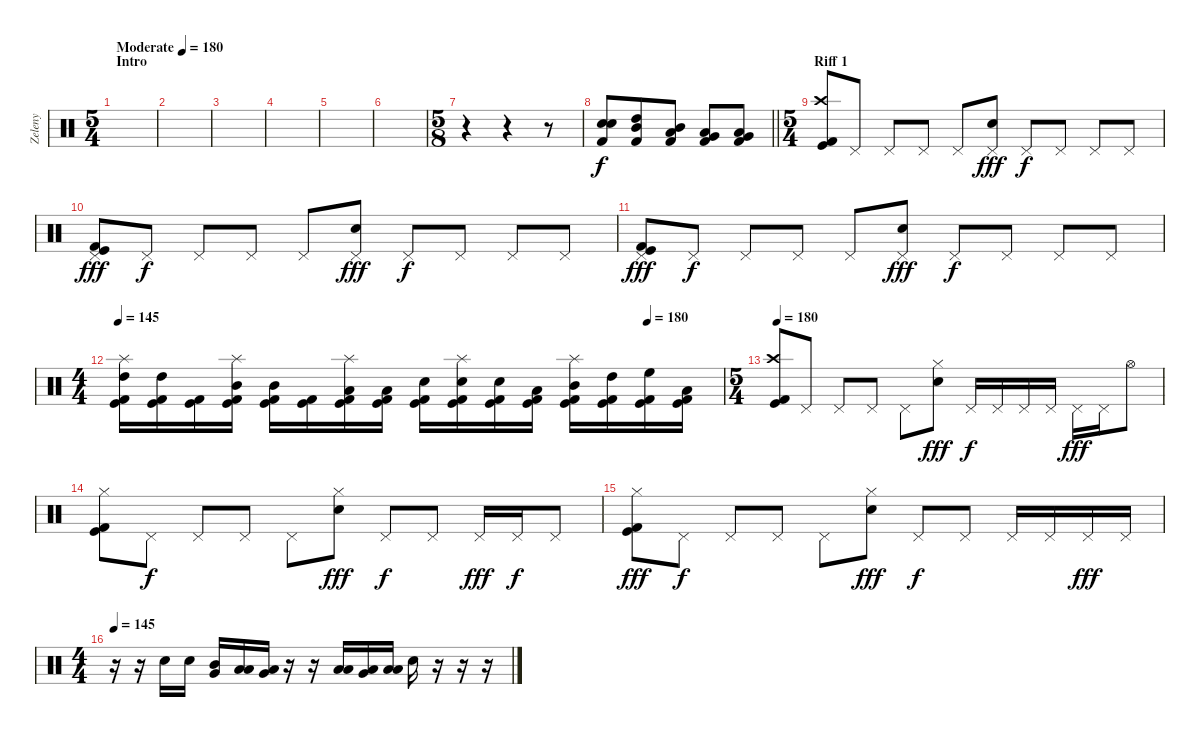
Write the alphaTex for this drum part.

\track ("Zeleny" "Zeleny") {instrument percussion}
\staff {score}
\articulation defaults
\ts (5 4)
\section ("" "Intro")
\tempo (180 "Moderate")
\clef neutral
\ks c
|
|
|
|
|
|
\ts (5 8)
r.4 r.4 r.8 |
\barLineRight lightlight
("Electric Snare (hit)" "Snare (hit) 2" "Kick (hit) 2").8 ("High Tom (hit)" "Mid Tom (hit)" "Kick (hit) 2").8 ("Mid Tom (hit)" "Low Tom (hit)" "Kick (hit) 2").8 ("Low Tom (hit)" "Very Low Tom (hit)" "Kick (hit) 2").8 ("Very Low Tom (hit)" "Low Floor Tom (hit)" "Kick (hit) 2").8 |
\ts (5 4)
\section ("" "Riff 1")
("Crash high (hit)" "Kick (hit)" "Kick (hit) 2").8 "Pedal Hi-Hat (hit)".8 "Pedal Hi-Hat (hit)".8 "Pedal Hi-Hat (hit)".8 "Pedal Hi-Hat (hit)".8 ("Pedal Hi-Hat (hit)" "Snare (hit) 2").8{dy fff} "Pedal Hi-Hat (hit)".8{dy f} "Pedal Hi-Hat (hit)".8 "Pedal Hi-Hat (hit)".8 "Pedal Hi-Hat (hit)".8 |
("Pedal Hi-Hat (hit)" "Kick (hit)" "Kick (hit) 2").8{dy fff} "Pedal Hi-Hat (hit)".8{dy f} "Pedal Hi-Hat (hit)".8 "Pedal Hi-Hat (hit)".8 "Pedal Hi-Hat (hit)".8 ("Pedal Hi-Hat (hit)" "Snare (hit) 2").8{dy fff} "Pedal Hi-Hat (hit)".8{dy f} "Pedal Hi-Hat (hit)".8 "Pedal Hi-Hat (hit)".8 "Pedal Hi-Hat (hit)".8 |
("Pedal Hi-Hat (hit)" "Kick (hit)" "Kick (hit) 2").8{dy fff} "Pedal Hi-Hat (hit)".8{dy f} "Pedal Hi-Hat (hit)".8 "Pedal Hi-Hat (hit)".8 "Pedal Hi-Hat (hit)".8 ("Pedal Hi-Hat (hit)" "Snare (hit) 2").8{dy fff} "Pedal Hi-Hat (hit)".8{dy f} "Pedal Hi-Hat (hit)".8 "Pedal Hi-Hat (hit)".8 "Pedal Hi-Hat (hit)".8 |
\ts (4 4)
\tempo 145
\tempo (180 0.875)
("Splash (hit)" "High Tom (hit)" "Kick (hit)" "Kick (hit) 2").16 ("High Tom (hit)" "Kick (hit)" "Kick (hit) 2").16 ("Kick (hit)" "Kick (hit) 2").16 ("Splash (hit)" "Mid Tom (hit)" "Kick (hit)" "Kick (hit) 2").16 ("Mid Tom (hit)" "Kick (hit)" "Kick (hit) 2").16 ("Kick (hit)" "Kick (hit) 2").16 ("Splash (hit)" "Low Tom (hit)" "Kick (hit)" "Kick (hit) 2").16 ("Low Tom (hit)" "Kick (hit)" "Kick (hit) 2").16 ("Electric Snare (hit)" "Kick (hit)" "Kick (hit) 2").16 ("Splash (hit)" "Electric Snare (hit)" "Kick (hit)" "Kick (hit) 2").16 ("Electric Snare (hit)" "Kick (hit)" "Kick (hit) 2").16 ("Low Tom (hit)" "Kick (hit)" "Kick (hit) 2").16 ("Splash (hit)" "Mid Tom (hit)" "Kick (hit)" "Kick (hit) 2").16 ("High Tom (hit)" "Kick (hit)" "Kick (hit) 2").16 ("High Floor Tom (hit)" "Kick (hit)" "Kick (hit) 2").16 ("Low Tom (hit)" "Kick (hit)" "Kick (hit) 2").16 |
\ts (5 4)
\tempo 180
("Crash high (hit)" "Kick (hit)" "Kick (hit) 2").8 "Pedal Hi-Hat (hit)".8 "Pedal Hi-Hat (hit)".8 "Pedal Hi-Hat (hit)".8 "Pedal Hi-Hat (hit)".8 ("Hi-Hat (closed)" "Electric Snare (hit)").8{dy fff} "Pedal Hi-Hat (hit)".16{dy f} "Pedal Hi-Hat (hit)".16 "Pedal Hi-Hat (hit)".16 "Pedal Hi-Hat (hit)".16 "Pedal Hi-Hat (hit)".16{dy fff} "Pedal Hi-Hat (hit)".16 "Hi-Hat (open)".8 |
("Hi-Hat (closed)" "Kick (hit)" "Kick (hit) 2").8 "Pedal Hi-Hat (hit)".8{dy f} "Pedal Hi-Hat (hit)".8 "Pedal Hi-Hat (hit)".8 "Pedal Hi-Hat (hit)".8 ("Hi-Hat (closed)" "Electric Snare (hit)").8{dy fff} "Pedal Hi-Hat (hit)".8{dy f} "Pedal Hi-Hat (hit)".8 "Pedal Hi-Hat (hit)".16{dy fff} "Pedal Hi-Hat (hit)".16{dy f} "Pedal Hi-Hat (hit)".8 |
("Hi-Hat (closed)" "Kick (hit)" "Kick (hit) 2").8{dy fff} "Pedal Hi-Hat (hit)".8{dy f} "Pedal Hi-Hat (hit)".8 "Pedal Hi-Hat (hit)".8 "Pedal Hi-Hat (hit)".8 ("Hi-Hat (closed)" "Electric Snare (hit)").8{dy fff} "Pedal Hi-Hat (hit)".8{dy f} "Pedal Hi-Hat (hit)".8 "Pedal Hi-Hat (hit)".16 "Pedal Hi-Hat (hit)".16 "Pedal Hi-Hat (hit)".16{dy fff} "Pedal Hi-Hat (hit)".16 |
\ts (4 4)
\tempo 145
r.16 r.16 "Snare (hit) 2".16 "Snare (hit) 2".16 ("Very Low Tom (hit)" "Mid Tom (hit)").16 ("Low Floor Tom (hit)" "Low Tom (hit)").16 ("Low Floor Tom (hit)" "Very Low Tom (hit)").16 r.16 r.16 ("Low Floor Tom (hit)" "Low Floor Tom (hit)").16 ("Low Floor Tom (hit)" "Very Low Tom (hit)").16 ("Low Floor Tom (hit)" "Low Tom (hit)").16 "Snare (hit) 2".16 r.16 r.16 r.16
